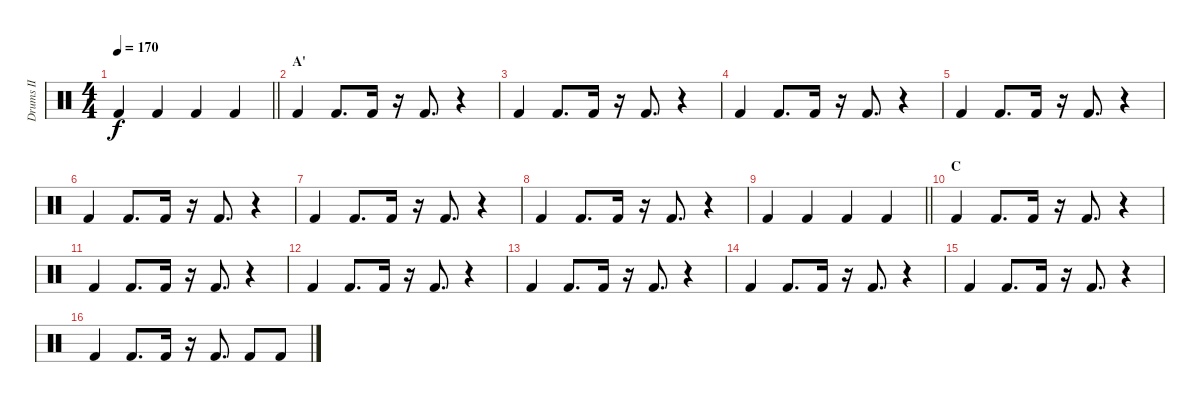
\track ("Drums II" "Drums II") {instrument percussion}
\staff {score}
\articulation defaults
\ts (4 4)
\tempo 170
\clef neutral
\barLineRight lightlight
\ks c "Kick (hit) 2".4{dy f} "Kick (hit) 2".4 "Kick (hit) 2".4 "Kick (hit) 2".4
|
\section ("" "A'")
"Kick (hit) 2".4 "Kick (hit) 2".8{d} "Kick (hit) 2".16 r.16 "Kick (hit) 2".8{d} r.4 |
"Kick (hit) 2".4 "Kick (hit) 2".8{d} "Kick (hit) 2".16 r.16 "Kick (hit) 2".8{d} r.4 |
"Kick (hit) 2".4 "Kick (hit) 2".8{d} "Kick (hit) 2".16 r.16 "Kick (hit) 2".8{d} r.4 |
"Kick (hit) 2".4 "Kick (hit) 2".8{d} "Kick (hit) 2".16 r.16 "Kick (hit) 2".8{d} r.4 |
"Kick (hit) 2".4 "Kick (hit) 2".8{d} "Kick (hit) 2".16 r.16 "Kick (hit) 2".8{d} r.4 |
"Kick (hit) 2".4 "Kick (hit) 2".8{d} "Kick (hit) 2".16 r.16 "Kick (hit) 2".8{d} r.4 |
"Kick (hit) 2".4 "Kick (hit) 2".8{d} "Kick (hit) 2".16 r.16 "Kick (hit) 2".8{d} r.4 |
\barLineRight lightlight "Kick (hit) 2".4 "Kick (hit) 2".4 "Kick (hit) 2".4 "Kick (hit) 2".4
|
\section ("" "C")
"Kick (hit) 2".4 "Kick (hit) 2".8{d} "Kick (hit) 2".16 r.16 "Kick (hit) 2".8{d} r.4 |
"Kick (hit) 2".4 "Kick (hit) 2".8{d} "Kick (hit) 2".16 r.16 "Kick (hit) 2".8{d} r.4 |
"Kick (hit) 2".4 "Kick (hit) 2".8{d} "Kick (hit) 2".16 r.16 "Kick (hit) 2".8{d} r.4 |
"Kick (hit) 2".4 "Kick (hit) 2".8{d} "Kick (hit) 2".16 r.16 "Kick (hit) 2".8{d} r.4 |
"Kick (hit) 2".4 "Kick (hit) 2".8{d} "Kick (hit) 2".16 r.16 "Kick (hit) 2".8{d} r.4 |
"Kick (hit) 2".4 "Kick (hit) 2".8{d} "Kick (hit) 2".16 r.16 "Kick (hit) 2".8{d} r.4 |
"Kick (hit) 2".4 "Kick (hit) 2".8{d} "Kick (hit) 2".16 r.16 "Kick (hit) 2".8{d} "Kick (hit) 2".8 "Kick (hit) 2".8
